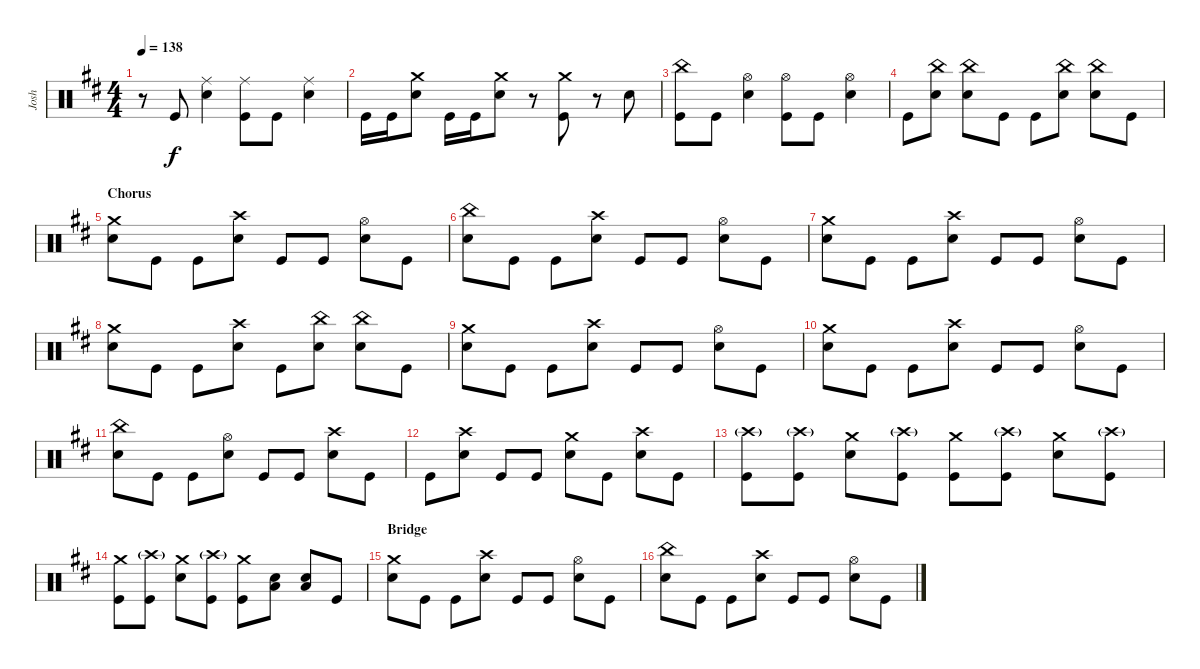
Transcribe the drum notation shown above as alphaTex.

\track ("Josh" "Josh") {instrument percussion}
\staff {score}
\articulation defaults
\ts (4 4)
\tempo 138
\clef neutral
\ks d
r.8{dy f} "Kick (hit)".8 ("Snare (hit) 2" "Ride (middle)").4 ("Kick (hit)" "Ride (middle)").8 "Kick (hit)".8 ("Snare (hit) 2" "Ride (middle)").4 |
"Kick (hit)".16 "Kick (hit)".16 ("Snare (hit) 2" "Crash medium (hit)").8 "Kick (hit)".16 "Kick (hit)".16 ("Snare (hit) 2" "Crash medium (hit)").8 r.8 ("Kick (hit)" "Crash medium (hit)").8 r.8 "Snare (hit) 2".8 |
("China (hit)" "Kick (hit)").8 "Kick (hit)".8 ("Snare (hit) 2" "Hi-Hat (open)").4 ("Kick (hit)" "Hi-Hat (open)").8 "Kick (hit)".8 ("Snare (hit) 2" "Hi-Hat (open)").4 |
"Kick (hit)".8 ("Snare (hit) 2" "China (hit)").8 ("Snare (hit) 2" "China (hit)").8 "Kick (hit)".8 "Kick (hit)".8 ("Snare (hit) 2" "China (hit)").8 ("Snare (hit) 2" "China (hit)").8 "Kick (hit)".8 |
\section ("" "Chorus")
("Snare (hit) 2" "Crash medium (hit)").8 "Kick (hit)".8 "Kick (hit)".8 ("Snare (hit) 2" "Crash high (hit)").8 "Kick (hit)".8 "Kick (hit)".8 ("Snare (hit) 2" "Hi-Hat (open)").8 "Kick (hit)".8 |
("Snare (hit) 2" "China (hit)").8 "Kick (hit)".8 "Kick (hit)".8 ("Snare (hit) 2" "Crash high (hit)").8 "Kick (hit)".8 "Kick (hit)".8 ("Snare (hit) 2" "Hi-Hat (open)").8 "Kick (hit)".8 |
("Snare (hit) 2" "Crash medium (hit)").8 "Kick (hit)".8 "Kick (hit)".8 ("Snare (hit) 2" "Crash high (hit)").8 "Kick (hit)".8 "Kick (hit)".8 ("Snare (hit) 2" "Hi-Hat (open)").8 "Kick (hit)".8 |
("Snare (hit) 2" "Crash medium (hit)").8 "Kick (hit)".8 "Kick (hit)".8 ("Snare (hit) 2" "Crash high (hit)").8 "Kick (hit)".8 ("Snare (hit) 2" "China (hit)").8 ("Snare (hit) 2" "China (hit)").8 "Kick (hit)".8 |
("Snare (hit) 2" "Crash medium (hit)").8 "Kick (hit)".8 "Kick (hit)".8 ("Snare (hit) 2" "Crash high (hit)").8 "Kick (hit)".8 "Kick (hit)".8 ("Snare (hit) 2" "Hi-Hat (open)").8 "Kick (hit)".8 |
("Snare (hit) 2" "Crash medium (hit)").8 "Kick (hit)".8 "Kick (hit)".8 ("Snare (hit) 2" "Crash high (hit)").8 "Kick (hit)".8 "Kick (hit)".8 ("Snare (hit) 2" "Hi-Hat (open)").8 "Kick (hit)".8 |
("Snare (hit) 2" "China (hit)").8 "Kick (hit)".8 "Kick (hit)".8 ("Snare (hit) 2" "Hi-Hat (open)").8 "Kick (hit)".8 "Kick (hit)".8 ("Snare (hit) 2" "Crash high (hit)").8 "Kick (hit)".8 |
"Kick (hit)".8 ("Snare (hit) 2" "Crash high (hit)").8 "Kick (hit)".8 "Kick (hit)".8 ("Snare (hit) 2" "Crash medium (hit)").8 "Kick (hit)".8 ("Snare (hit) 2" "Crash high (hit)").8 "Kick (hit)".8 |
("Kick (hit)" "Crash high (hit)"{g}).8 ("Kick (hit)" "Crash high (hit)"{g}).8 ("Snare (hit) 2" "Crash medium (hit)").8 ("Kick (hit)" "Crash high (hit)"{g}).8 ("Kick (hit)" "Crash medium (hit)").8 ("Kick (hit)" "Crash high (hit)"{g}).8 ("Snare (hit) 2" "Crash medium (hit)").8 ("Kick (hit)" "Crash high (hit)"{g}).8 |
("Kick (hit)" "Crash medium (hit)").8 ("Kick (hit)" "Crash high (hit)"{g}).8 ("Snare (hit) 2" "Crash medium (hit)").8 ("Kick (hit)" "Crash high (hit)"{g}).8 ("Kick (hit)" "Crash medium (hit)").8 ("Snare (hit) 2" "Low Floor Tom (hit)").8 ("Snare (hit) 2" "Low Floor Tom (hit)").8 "Kick (hit)".8 |
\section ("" "Bridge")
("Snare (hit) 2" "Crash medium (hit)").8 "Kick (hit)".8 "Kick (hit)".8 ("Snare (hit) 2" "Crash high (hit)").8 "Kick (hit)".8 "Kick (hit)".8 ("Snare (hit) 2" "Hi-Hat (open)").8 "Kick (hit)".8 |
("Snare (hit) 2" "China (hit)").8 "Kick (hit)".8 "Kick (hit)".8 ("Snare (hit) 2" "Crash high (hit)").8 "Kick (hit)".8 "Kick (hit)".8 ("Snare (hit) 2" "Hi-Hat (open)").8 "Kick (hit)".8
